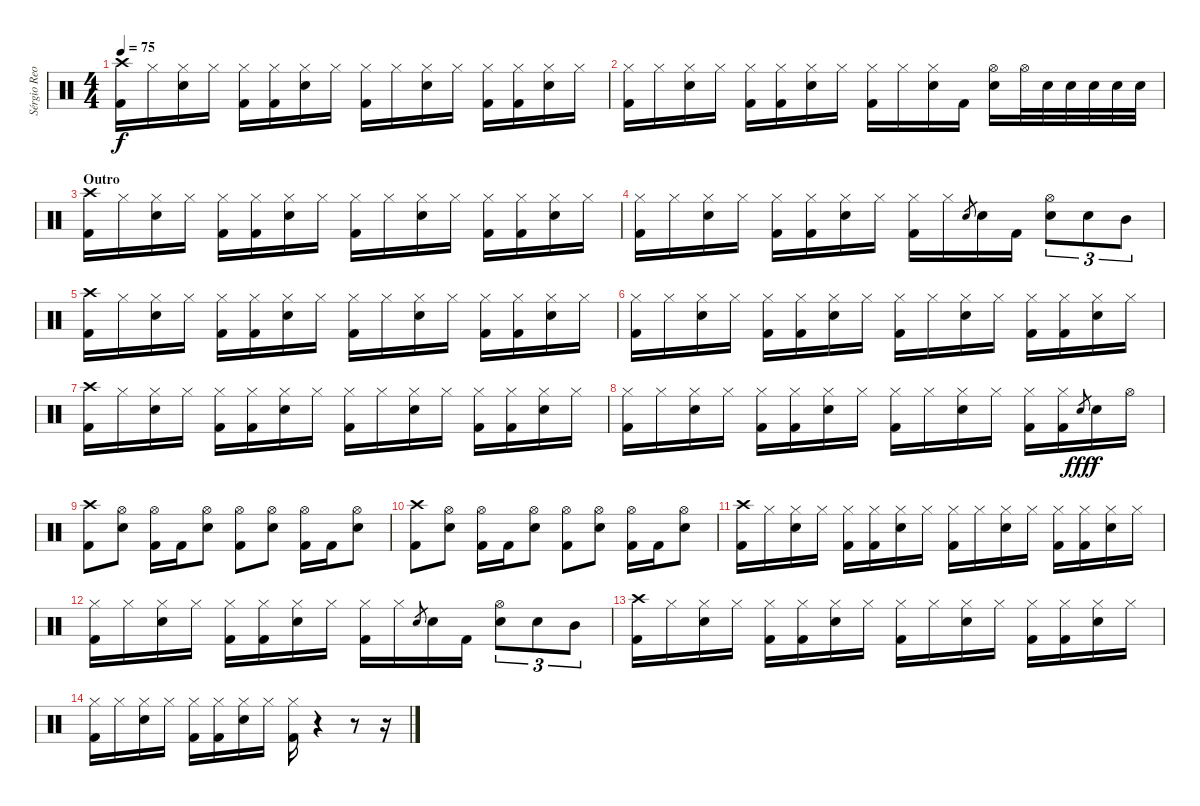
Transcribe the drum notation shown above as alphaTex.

\track ("Sérgio Reoli" "Sérgio Reo") {instrument percussion}
\staff {score}
\articulation defaults
\ts (4 4)
\tempo 75
\clef neutral
\ks c
("Crash high (hit)" "Kick (hit) 2").16{dy f} "Hi-Hat (closed)".16 ("Hi-Hat (closed)" "Electric Snare (hit)").16 "Hi-Hat (closed)".16 ("Hi-Hat (closed)" "Kick (hit) 2").16 ("Hi-Hat (closed)" "Kick (hit) 2").16 ("Hi-Hat (closed)" "Electric Snare (hit)").16 "Hi-Hat (closed)".16 ("Hi-Hat (closed)" "Kick (hit) 2").16 "Hi-Hat (closed)".16 ("Hi-Hat (closed)" "Electric Snare (hit)").16 "Hi-Hat (closed)".16 ("Hi-Hat (closed)" "Kick (hit) 2").16 ("Hi-Hat (closed)" "Kick (hit) 2").16 ("Hi-Hat (closed)" "Electric Snare (hit)").16 "Hi-Hat (closed)".16 |
("Hi-Hat (closed)" "Kick (hit) 2").16 "Hi-Hat (closed)".16 ("Hi-Hat (closed)" "Electric Snare (hit)").16 "Hi-Hat (closed)".16 ("Hi-Hat (closed)" "Kick (hit) 2").16 ("Hi-Hat (closed)" "Kick (hit) 2").16 ("Hi-Hat (closed)" "Electric Snare (hit)").16 "Hi-Hat (closed)".16 ("Hi-Hat (closed)" "Kick (hit) 2").16 "Hi-Hat (closed)".16 ("Hi-Hat (closed)" "Electric Snare (hit)").16 "Kick (hit) 2".16 ("Hi-Hat (open)" "Electric Snare (hit)").16 "Hi-Hat (open)".32 "Electric Snare (hit)".32 "Electric Snare (hit)".32 "Electric Snare (hit)".32 "Electric Snare (hit)".32 "Electric Snare (hit)".32 |
\section ("" "Outro")
("Crash high (hit)" "Kick (hit) 2").16 "Hi-Hat (closed)".16 ("Hi-Hat (closed)" "Electric Snare (hit)").16 "Hi-Hat (closed)".16 ("Hi-Hat (closed)" "Kick (hit) 2").16 ("Hi-Hat (closed)" "Kick (hit) 2").16 ("Hi-Hat (closed)" "Electric Snare (hit)").16 "Hi-Hat (closed)".16 ("Hi-Hat (closed)" "Kick (hit) 2").16 "Hi-Hat (closed)".16 ("Hi-Hat (closed)" "Electric Snare (hit)").16 "Hi-Hat (closed)".16 ("Hi-Hat (closed)" "Kick (hit) 2").16 ("Hi-Hat (closed)" "Kick (hit) 2").16 ("Hi-Hat (closed)" "Electric Snare (hit)").16 "Hi-Hat (closed)".16 |
("Hi-Hat (closed)" "Kick (hit) 2").16 "Hi-Hat (closed)".16 ("Hi-Hat (closed)" "Electric Snare (hit)").16 "Hi-Hat (closed)".16 ("Hi-Hat (closed)" "Kick (hit) 2").16 ("Hi-Hat (closed)" "Kick (hit) 2").16 ("Hi-Hat (closed)" "Electric Snare (hit)").16 "Hi-Hat (closed)".16 ("Hi-Hat (closed)" "Kick (hit) 2").16 "Hi-Hat (closed)".16 "Electric Snare (hit)".8{gr} "Electric Snare (hit)".16 "Kick (hit) 2".16 ("Hi-Hat (open)" "Electric Snare (hit)").8{tu (3 2)} "Electric Snare (hit)".8{tu (3 2)} "Mid Tom (hit)".8{tu (3 2)} |
("Crash high (hit)" "Kick (hit) 2").16 "Hi-Hat (closed)".16 ("Hi-Hat (closed)" "Electric Snare (hit)").16 "Hi-Hat (closed)".16 ("Hi-Hat (closed)" "Kick (hit) 2").16 ("Hi-Hat (closed)" "Kick (hit) 2").16 ("Hi-Hat (closed)" "Electric Snare (hit)").16 "Hi-Hat (closed)".16 ("Hi-Hat (closed)" "Kick (hit) 2").16 "Hi-Hat (closed)".16 ("Hi-Hat (closed)" "Electric Snare (hit)").16 "Hi-Hat (closed)".16 ("Hi-Hat (closed)" "Kick (hit) 2").16 ("Hi-Hat (closed)" "Kick (hit) 2").16 ("Hi-Hat (closed)" "Electric Snare (hit)").16 "Hi-Hat (closed)".16 |
("Hi-Hat (closed)" "Kick (hit) 2").16 "Hi-Hat (closed)".16 ("Hi-Hat (closed)" "Electric Snare (hit)").16 "Hi-Hat (closed)".16 ("Hi-Hat (closed)" "Kick (hit) 2").16 ("Hi-Hat (closed)" "Kick (hit) 2").16 ("Hi-Hat (closed)" "Electric Snare (hit)").16 "Hi-Hat (closed)".16 ("Hi-Hat (closed)" "Kick (hit) 2").16 "Hi-Hat (closed)".16 ("Hi-Hat (closed)" "Electric Snare (hit)").16 "Hi-Hat (closed)".16 ("Hi-Hat (closed)" "Kick (hit) 2").16 ("Hi-Hat (closed)" "Kick (hit) 2").16 ("Hi-Hat (closed)" "Electric Snare (hit)").16 "Hi-Hat (closed)".16 |
("Crash high (hit)" "Kick (hit) 2").16 "Hi-Hat (closed)".16 ("Hi-Hat (closed)" "Electric Snare (hit)").16 "Hi-Hat (closed)".16 ("Hi-Hat (closed)" "Kick (hit) 2").16 ("Hi-Hat (closed)" "Kick (hit) 2").16 ("Hi-Hat (closed)" "Electric Snare (hit)").16 "Hi-Hat (closed)".16 ("Hi-Hat (closed)" "Kick (hit) 2").16 "Hi-Hat (closed)".16 ("Hi-Hat (closed)" "Electric Snare (hit)").16 "Hi-Hat (closed)".16 ("Hi-Hat (closed)" "Kick (hit) 2").16 ("Hi-Hat (closed)" "Kick (hit) 2").16 ("Hi-Hat (closed)" "Electric Snare (hit)").16 "Hi-Hat (closed)".16 |
("Hi-Hat (closed)" "Kick (hit) 2").16 "Hi-Hat (closed)".16 ("Hi-Hat (closed)" "Electric Snare (hit)").16 "Hi-Hat (closed)".16 ("Hi-Hat (closed)" "Kick (hit) 2").16 ("Hi-Hat (closed)" "Kick (hit) 2").16 ("Hi-Hat (closed)" "Electric Snare (hit)").16 "Hi-Hat (closed)".16 ("Hi-Hat (closed)" "Kick (hit) 2").16 "Hi-Hat (closed)".16 ("Hi-Hat (closed)" "Electric Snare (hit)").16 "Hi-Hat (closed)".16 ("Hi-Hat (closed)" "Kick (hit) 2").16 ("Hi-Hat (closed)" "Kick (hit) 2").16 "Electric Snare (hit)".8{gr dy fff} "Electric Snare (hit)".16{dy f} "Hi-Hat (open)".16 |
("Crash high (hit)" "Kick (hit) 2").8 ("Hi-Hat (open)" "Electric Snare (hit)").8 ("Hi-Hat (open)" "Kick (hit) 2").16 "Kick (hit) 2".16 ("Hi-Hat (open)" "Electric Snare (hit)").8 ("Hi-Hat (open)" "Kick (hit) 2").8 ("Hi-Hat (open)" "Electric Snare (hit)").8 ("Hi-Hat (open)" "Kick (hit) 2").16 "Kick (hit) 2".16 ("Hi-Hat (open)" "Electric Snare (hit)").8 |
("Crash high (hit)" "Kick (hit) 2").8 ("Hi-Hat (open)" "Electric Snare (hit)").8 ("Hi-Hat (open)" "Kick (hit) 2").16 "Kick (hit) 2".16 ("Hi-Hat (open)" "Electric Snare (hit)").8 ("Hi-Hat (open)" "Kick (hit) 2").8 ("Hi-Hat (open)" "Electric Snare (hit)").8 ("Hi-Hat (open)" "Kick (hit) 2").16 "Kick (hit) 2".16 ("Hi-Hat (open)" "Electric Snare (hit)").8 |
("Crash high (hit)" "Kick (hit) 2").16 "Hi-Hat (closed)".16 ("Hi-Hat (closed)" "Electric Snare (hit)").16 "Hi-Hat (closed)".16 ("Hi-Hat (closed)" "Kick (hit) 2").16 ("Hi-Hat (closed)" "Kick (hit) 2").16 ("Hi-Hat (closed)" "Electric Snare (hit)").16 "Hi-Hat (closed)".16 ("Hi-Hat (closed)" "Kick (hit) 2").16 "Hi-Hat (closed)".16 ("Hi-Hat (closed)" "Electric Snare (hit)").16 "Hi-Hat (closed)".16 ("Hi-Hat (closed)" "Kick (hit) 2").16 ("Hi-Hat (closed)" "Kick (hit) 2").16 ("Hi-Hat (closed)" "Electric Snare (hit)").16 "Hi-Hat (closed)".16 |
("Hi-Hat (closed)" "Kick (hit) 2").16 "Hi-Hat (closed)".16 ("Hi-Hat (closed)" "Electric Snare (hit)").16 "Hi-Hat (closed)".16 ("Hi-Hat (closed)" "Kick (hit) 2").16 ("Hi-Hat (closed)" "Kick (hit) 2").16 ("Hi-Hat (closed)" "Electric Snare (hit)").16 "Hi-Hat (closed)".16 ("Hi-Hat (closed)" "Kick (hit) 2").16 "Hi-Hat (closed)".16 "Electric Snare (hit)".8{gr} "Electric Snare (hit)".16 "Kick (hit) 2".16 ("Hi-Hat (open)" "Electric Snare (hit)").8{tu (3 2)} "Electric Snare (hit)".8{tu (3 2)} "Mid Tom (hit)".8{tu (3 2)} |
("Crash high (hit)" "Kick (hit) 2").16 "Hi-Hat (closed)".16 ("Hi-Hat (closed)" "Electric Snare (hit)").16 "Hi-Hat (closed)".16 ("Hi-Hat (closed)" "Kick (hit) 2").16 ("Hi-Hat (closed)" "Kick (hit) 2").16 ("Hi-Hat (closed)" "Electric Snare (hit)").16 "Hi-Hat (closed)".16 ("Hi-Hat (closed)" "Kick (hit) 2").16 "Hi-Hat (closed)".16 ("Hi-Hat (closed)" "Electric Snare (hit)").16 "Hi-Hat (closed)".16 ("Hi-Hat (closed)" "Kick (hit) 2").16 ("Hi-Hat (closed)" "Kick (hit) 2").16 ("Hi-Hat (closed)" "Electric Snare (hit)").16 "Hi-Hat (closed)".16 |
("Hi-Hat (closed)" "Kick (hit) 2").16 "Hi-Hat (closed)".16 ("Hi-Hat (closed)" "Electric Snare (hit)").16 "Hi-Hat (closed)".16 ("Hi-Hat (closed)" "Kick (hit) 2").16 ("Hi-Hat (closed)" "Kick (hit) 2").16 ("Hi-Hat (closed)" "Electric Snare (hit)").16 "Hi-Hat (closed)".16 ("Hi-Hat (closed)" "Kick (hit) 2").16 r.4 r.8 r.16
